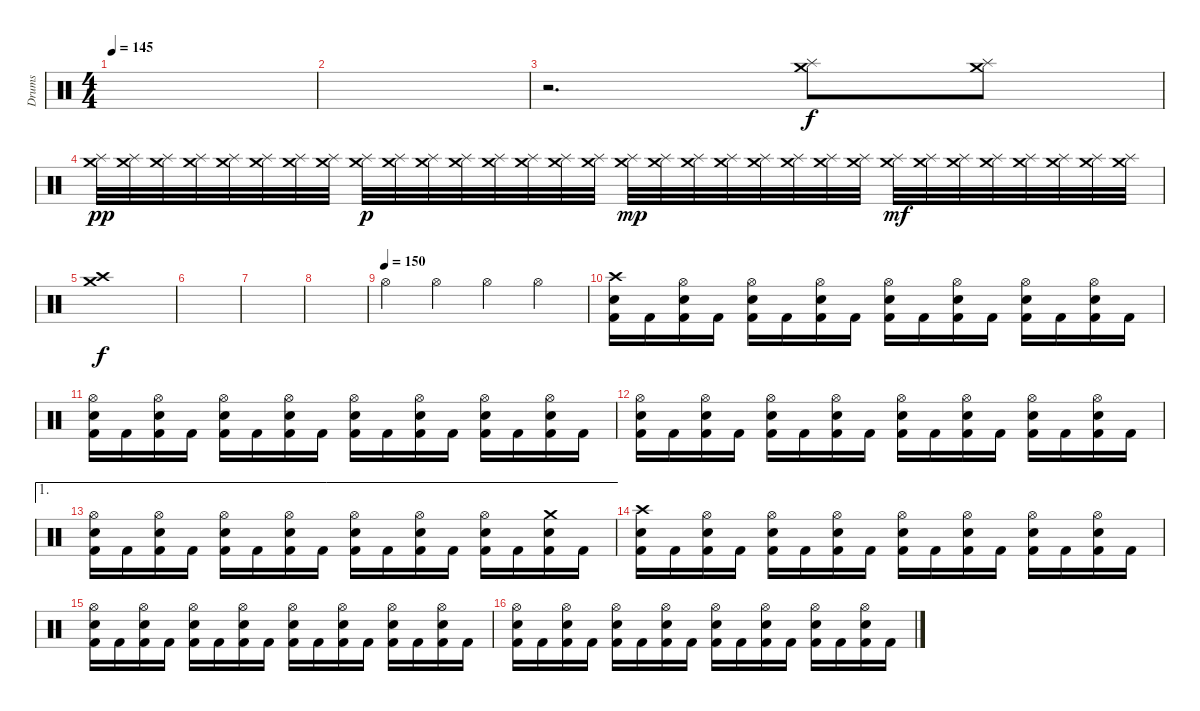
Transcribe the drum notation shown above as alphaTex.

\track ("Drums" "Drums") {instrument percussion}
\staff {score}
\articulation defaults
\ts (4 4)
\tempo 145
\clef neutral
\ks c
|
|
r.2{d} ("Crash medium (hit)" "Splash (hit)").8 ("Crash medium (hit)" "Splash (hit)").8 |
("Crash medium (hit)" "Splash (hit)").32{dy pp} ("Crash medium (hit)" "Splash (hit)").32 ("Crash medium (hit)" "Splash (hit)").32 ("Crash medium (hit)" "Splash (hit)").32 ("Crash medium (hit)" "Splash (hit)").32 ("Crash medium (hit)" "Splash (hit)").32 ("Crash medium (hit)" "Splash (hit)").32 ("Crash medium (hit)" "Splash (hit)").32 ("Crash medium (hit)" "Splash (hit)").32{dy p} ("Crash medium (hit)" "Splash (hit)").32 ("Crash medium (hit)" "Splash (hit)").32 ("Crash medium (hit)" "Splash (hit)").32 ("Crash medium (hit)" "Splash (hit)").32 ("Crash medium (hit)" "Splash (hit)").32 ("Crash medium (hit)" "Splash (hit)").32 ("Crash medium (hit)" "Splash (hit)").32 ("Crash medium (hit)" "Splash (hit)").32{dy mp} ("Crash medium (hit)" "Splash (hit)").32 ("Crash medium (hit)" "Splash (hit)").32 ("Crash medium (hit)" "Splash (hit)").32 ("Crash medium (hit)" "Splash (hit)").32 ("Crash medium (hit)" "Splash (hit)").32 ("Crash medium (hit)" "Splash (hit)").32 ("Crash medium (hit)" "Splash (hit)").32 ("Crash medium (hit)" "Splash (hit)").32{dy mf} ("Crash medium (hit)" "Splash (hit)").32 ("Crash medium (hit)" "Splash (hit)").32 ("Crash medium (hit)" "Splash (hit)").32 ("Crash medium (hit)" "Splash (hit)").32 ("Crash medium (hit)" "Splash (hit)").32 ("Crash medium (hit)" "Splash (hit)").32 ("Crash medium (hit)" "Splash (hit)").32 |
("Crash high (hit)" "Crash medium (hit)").1{dy f} |
|
|
|
\tempo (150)
"Hi-Hat (open)".4 "Hi-Hat (open)".4 "Hi-Hat (open)".4 "Hi-Hat (open)".4 |
("Crash high (hit)" "Electric Snare (hit)" "Kick (hit) 2").16 "Kick (hit) 2".16 ("Hi-Hat (open)" "Electric Snare (hit)" "Kick (hit) 2").16 "Kick (hit) 2".16 ("Hi-Hat (open)" "Electric Snare (hit)" "Kick (hit) 2").16 "Kick (hit) 2".16 ("Hi-Hat (open)" "Electric Snare (hit)" "Kick (hit) 2").16 "Kick (hit) 2".16 ("Hi-Hat (open)" "Electric Snare (hit)" "Kick (hit) 2").16 "Kick (hit) 2".16 ("Hi-Hat (open)" "Electric Snare (hit)" "Kick (hit) 2").16 "Kick (hit) 2".16 ("Hi-Hat (open)" "Electric Snare (hit)" "Kick (hit) 2").16 "Kick (hit) 2".16 ("Hi-Hat (open)" "Electric Snare (hit)" "Kick (hit) 2").16 "Kick (hit) 2".16 |
("Hi-Hat (open)" "Electric Snare (hit)" "Kick (hit) 2").16 "Kick (hit) 2".16 ("Hi-Hat (open)" "Electric Snare (hit)" "Kick (hit) 2").16 "Kick (hit) 2".16 ("Hi-Hat (open)" "Electric Snare (hit)" "Kick (hit) 2").16 "Kick (hit) 2".16 ("Hi-Hat (open)" "Electric Snare (hit)" "Kick (hit) 2").16 "Kick (hit) 2".16 ("Hi-Hat (open)" "Electric Snare (hit)" "Kick (hit) 2").16 "Kick (hit) 2".16 ("Hi-Hat (open)" "Electric Snare (hit)" "Kick (hit) 2").16 "Kick (hit) 2".16 ("Hi-Hat (open)" "Electric Snare (hit)" "Kick (hit) 2").16 "Kick (hit) 2".16 ("Hi-Hat (open)" "Electric Snare (hit)" "Kick (hit) 2").16 "Kick (hit) 2".16 |
("Hi-Hat (open)" "Electric Snare (hit)" "Kick (hit) 2").16 "Kick (hit) 2".16 ("Hi-Hat (open)" "Electric Snare (hit)" "Kick (hit) 2").16 "Kick (hit) 2".16 ("Hi-Hat (open)" "Electric Snare (hit)" "Kick (hit) 2").16 "Kick (hit) 2".16 ("Hi-Hat (open)" "Electric Snare (hit)" "Kick (hit) 2").16 "Kick (hit) 2".16 ("Hi-Hat (open)" "Electric Snare (hit)" "Kick (hit) 2").16 "Kick (hit) 2".16 ("Hi-Hat (open)" "Electric Snare (hit)" "Kick (hit) 2").16 "Kick (hit) 2".16 ("Hi-Hat (open)" "Electric Snare (hit)" "Kick (hit) 2").16 "Kick (hit) 2".16 ("Hi-Hat (open)" "Electric Snare (hit)" "Kick (hit) 2").16 "Kick (hit) 2".16 |
\ae 1
("Hi-Hat (open)" "Electric Snare (hit)" "Kick (hit) 2").16 "Kick (hit) 2".16 ("Hi-Hat (open)" "Electric Snare (hit)" "Kick (hit) 2").16 "Kick (hit) 2".16 ("Hi-Hat (open)" "Electric Snare (hit)" "Kick (hit) 2").16 "Kick (hit) 2".16 ("Hi-Hat (open)" "Electric Snare (hit)" "Kick (hit) 2").16 "Kick (hit) 2".16 ("Hi-Hat (open)" "Electric Snare (hit)" "Kick (hit) 2").16 "Kick (hit) 2".16 ("Hi-Hat (open)" "Electric Snare (hit)" "Kick (hit) 2").16 "Kick (hit) 2".16 ("Hi-Hat (open)" "Electric Snare (hit)" "Kick (hit) 2").16 "Kick (hit) 2".16 ("Crash medium (hit)" "Electric Snare (hit)" "Kick (hit) 2").16 "Kick (hit) 2".16 |
("Crash high (hit)" "Electric Snare (hit)" "Kick (hit) 2").16 "Kick (hit) 2".16 ("Hi-Hat (open)" "Electric Snare (hit)" "Kick (hit) 2").16 "Kick (hit) 2".16 ("Hi-Hat (open)" "Electric Snare (hit)" "Kick (hit) 2").16 "Kick (hit) 2".16 ("Hi-Hat (open)" "Electric Snare (hit)" "Kick (hit) 2").16 "Kick (hit) 2".16 ("Hi-Hat (open)" "Electric Snare (hit)" "Kick (hit) 2").16 "Kick (hit) 2".16 ("Hi-Hat (open)" "Electric Snare (hit)" "Kick (hit) 2").16 "Kick (hit) 2".16 ("Hi-Hat (open)" "Electric Snare (hit)" "Kick (hit) 2").16 "Kick (hit) 2".16 ("Hi-Hat (open)" "Electric Snare (hit)" "Kick (hit) 2").16 "Kick (hit) 2".16 |
("Hi-Hat (open)" "Electric Snare (hit)" "Kick (hit) 2").16 "Kick (hit) 2".16 ("Hi-Hat (open)" "Electric Snare (hit)" "Kick (hit) 2").16 "Kick (hit) 2".16 ("Hi-Hat (open)" "Electric Snare (hit)" "Kick (hit) 2").16 "Kick (hit) 2".16 ("Hi-Hat (open)" "Electric Snare (hit)" "Kick (hit) 2").16 "Kick (hit) 2".16 ("Hi-Hat (open)" "Electric Snare (hit)" "Kick (hit) 2").16 "Kick (hit) 2".16 ("Hi-Hat (open)" "Electric Snare (hit)" "Kick (hit) 2").16 "Kick (hit) 2".16 ("Hi-Hat (open)" "Electric Snare (hit)" "Kick (hit) 2").16 "Kick (hit) 2".16 ("Hi-Hat (open)" "Electric Snare (hit)" "Kick (hit) 2").16 "Kick (hit) 2".16 |
("Hi-Hat (open)" "Electric Snare (hit)" "Kick (hit) 2").16 "Kick (hit) 2".16 ("Hi-Hat (open)" "Electric Snare (hit)" "Kick (hit) 2").16 "Kick (hit) 2".16 ("Hi-Hat (open)" "Electric Snare (hit)" "Kick (hit) 2").16 "Kick (hit) 2".16 ("Hi-Hat (open)" "Electric Snare (hit)" "Kick (hit) 2").16 "Kick (hit) 2".16 ("Hi-Hat (open)" "Electric Snare (hit)" "Kick (hit) 2").16 "Kick (hit) 2".16 ("Hi-Hat (open)" "Electric Snare (hit)" "Kick (hit) 2").16 "Kick (hit) 2".16 ("Hi-Hat (open)" "Electric Snare (hit)" "Kick (hit) 2").16 "Kick (hit) 2".16 ("Hi-Hat (open)" "Electric Snare (hit)" "Kick (hit) 2").16 "Kick (hit) 2".16
